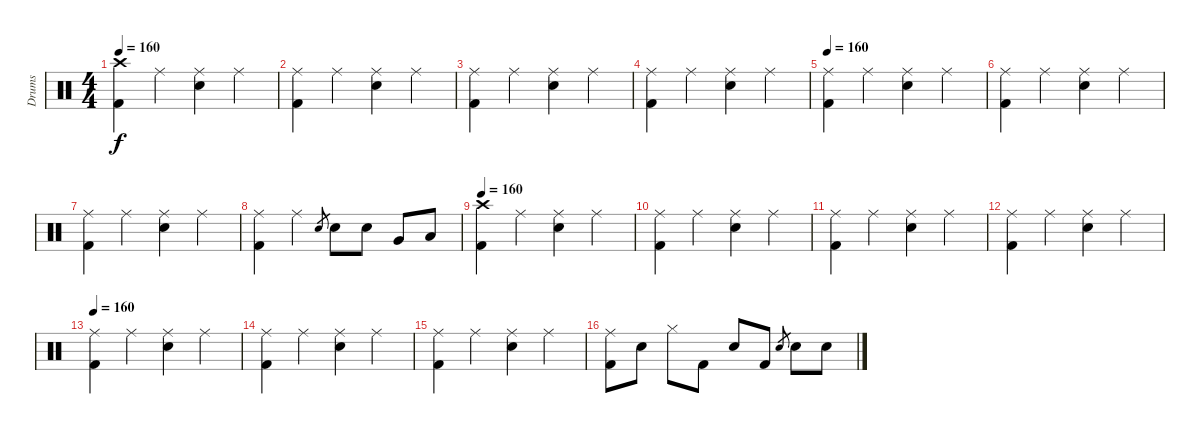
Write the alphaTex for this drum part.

\track ("Drums" "Drums") {instrument percussion}
\staff {score}
\articulation defaults
\ts (4 4)
\tempo 160
\clef neutral
\ks c
("Crash high (hit)" "Kick (hit) 2").4{dy f} "Ride (middle)".4 ("Ride (middle)" "Electric Snare (hit)").4 "Ride (middle)".4 |
("Ride (middle)" "Kick (hit) 2").4 "Ride (middle)".4 ("Ride (middle)" "Electric Snare (hit)").4 "Ride (middle)".4 |
("Ride (middle)" "Kick (hit) 2").4 "Ride (middle)".4 ("Ride (middle)" "Electric Snare (hit)").4 "Ride (middle)".4 |
("Ride (middle)" "Kick (hit) 2").4 "Ride (middle)".4 ("Ride (middle)" "Electric Snare (hit)").4 "Ride (middle)".4 |
\tempo 160
("Ride (middle)" "Kick (hit) 2").4 "Ride (middle)".4 ("Ride (middle)" "Electric Snare (hit)").4 "Ride (middle)".4 |
("Ride (middle)" "Kick (hit) 2").4 "Ride (middle)".4 ("Ride (middle)" "Electric Snare (hit)").4 "Ride (middle)".4 |
("Ride (middle)" "Kick (hit) 2").4 "Ride (middle)".4 ("Ride (middle)" "Electric Snare (hit)").4 "Ride (middle)".4 |
("Ride (middle)" "Kick (hit) 2").4 "Ride (middle)".4 "Electric Snare (hit)".8{gr} "Electric Snare (hit)".8 "Electric Snare (hit)".8 "Very Low Tom (hit)".8 "Low Floor Tom (hit)".8 |
\tempo 160
("Crash high (hit)" "Kick (hit) 2").4 "Ride (middle)".4 ("Ride (middle)" "Electric Snare (hit)").4 "Ride (middle)".4 |
("Ride (middle)" "Kick (hit) 2").4 "Ride (middle)".4 ("Ride (middle)" "Electric Snare (hit)").4 "Ride (middle)".4 |
("Ride (middle)" "Kick (hit) 2").4 "Ride (middle)".4 ("Ride (middle)" "Electric Snare (hit)").4 "Ride (middle)".4 |
("Ride (middle)" "Kick (hit) 2").4 "Ride (middle)".4 ("Ride (middle)" "Electric Snare (hit)").4 "Ride (middle)".4 |
\tempo 160
("Ride (middle)" "Kick (hit) 2").4 "Ride (middle)".4 ("Ride (middle)" "Electric Snare (hit)").4 "Ride (middle)".4 |
("Ride (middle)" "Kick (hit) 2").4 "Ride (middle)".4 ("Ride (middle)" "Electric Snare (hit)").4 "Ride (middle)".4 |
("Ride (middle)" "Kick (hit) 2").4 "Ride (middle)".4 ("Ride (middle)" "Electric Snare (hit)").4 "Ride (middle)".4 |
("Ride (middle)" "Kick (hit) 2").8 "Electric Snare (hit)".8 "Hi-Hat (closed)".8 "Kick (hit) 2".8 "Electric Snare (hit)".8 "Kick (hit) 2".8 "Electric Snare (hit)".8{gr} "Electric Snare (hit)".8 "Electric Snare (hit)".8
